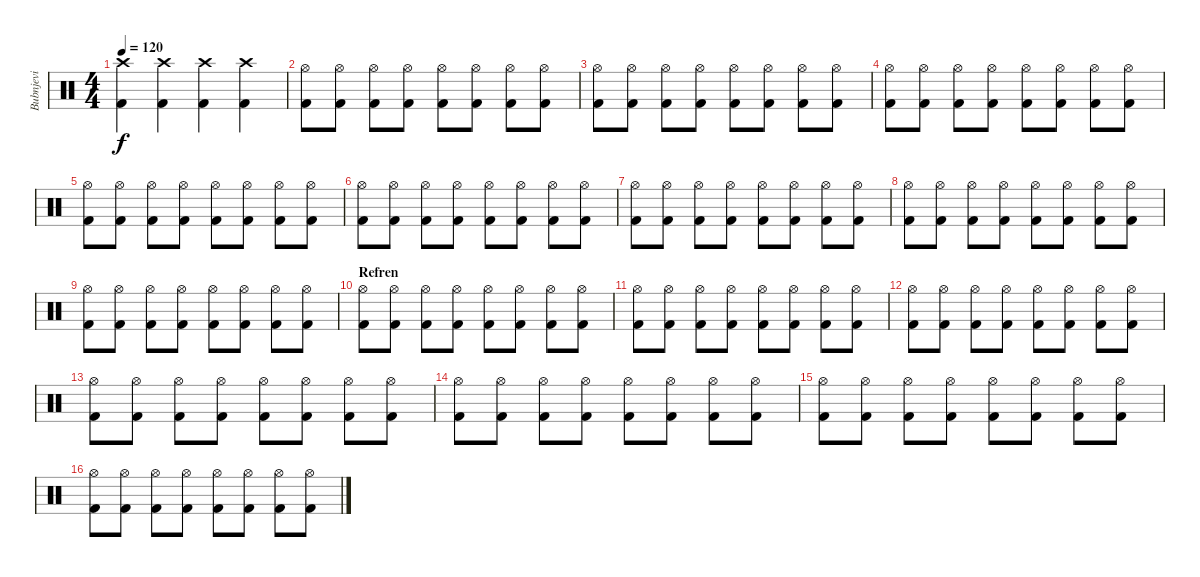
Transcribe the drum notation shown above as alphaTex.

\track ("Bubnjevi" "Bubnjevi") {instrument percussion}
\staff {score}
\articulation defaults
\ts (4 4)
\tempo 120
\clef neutral
\ks c
("Crash high (hit)" "Kick (hit) 2").4{dy f} ("Crash high (hit)" "Kick (hit) 2").4 ("Crash high (hit)" "Kick (hit) 2").4 ("Crash high (hit)" "Kick (hit) 2").4 |
("Hi-Hat (open)" "Kick (hit) 2").8 ("Hi-Hat (open)" "Kick (hit) 2").8 ("Hi-Hat (open)" "Kick (hit) 2").8 ("Hi-Hat (open)" "Kick (hit) 2").8 ("Hi-Hat (open)" "Kick (hit) 2").8 ("Hi-Hat (open)" "Kick (hit) 2").8 ("Hi-Hat (open)" "Kick (hit) 2").8 ("Hi-Hat (open)" "Kick (hit) 2").8 |
("Hi-Hat (open)" "Kick (hit) 2").8 ("Hi-Hat (open)" "Kick (hit) 2").8 ("Hi-Hat (open)" "Kick (hit) 2").8 ("Hi-Hat (open)" "Kick (hit) 2").8 ("Hi-Hat (open)" "Kick (hit) 2").8 ("Hi-Hat (open)" "Kick (hit) 2").8 ("Hi-Hat (open)" "Kick (hit) 2").8 ("Hi-Hat (open)" "Kick (hit) 2").8 |
("Hi-Hat (open)" "Kick (hit) 2").8 ("Hi-Hat (open)" "Kick (hit) 2").8 ("Hi-Hat (open)" "Kick (hit) 2").8 ("Hi-Hat (open)" "Kick (hit) 2").8 ("Hi-Hat (open)" "Kick (hit) 2").8 ("Hi-Hat (open)" "Kick (hit) 2").8 ("Hi-Hat (open)" "Kick (hit) 2").8 ("Hi-Hat (open)" "Kick (hit) 2").8 |
("Hi-Hat (open)" "Kick (hit) 2").8 ("Hi-Hat (open)" "Kick (hit) 2").8 ("Hi-Hat (open)" "Kick (hit) 2").8 ("Hi-Hat (open)" "Kick (hit) 2").8 ("Hi-Hat (open)" "Kick (hit) 2").8 ("Hi-Hat (open)" "Kick (hit) 2").8 ("Hi-Hat (open)" "Kick (hit) 2").8 ("Hi-Hat (open)" "Kick (hit) 2").8 |
("Hi-Hat (open)" "Kick (hit) 2").8 ("Hi-Hat (open)" "Kick (hit) 2").8 ("Hi-Hat (open)" "Kick (hit) 2").8 ("Hi-Hat (open)" "Kick (hit) 2").8 ("Hi-Hat (open)" "Kick (hit) 2").8 ("Hi-Hat (open)" "Kick (hit) 2").8 ("Hi-Hat (open)" "Kick (hit) 2").8 ("Hi-Hat (open)" "Kick (hit) 2").8 |
("Hi-Hat (open)" "Kick (hit) 2").8 ("Hi-Hat (open)" "Kick (hit) 2").8 ("Hi-Hat (open)" "Kick (hit) 2").8 ("Hi-Hat (open)" "Kick (hit) 2").8 ("Hi-Hat (open)" "Kick (hit) 2").8 ("Hi-Hat (open)" "Kick (hit) 2").8 ("Hi-Hat (open)" "Kick (hit) 2").8 ("Hi-Hat (open)" "Kick (hit) 2").8 |
("Hi-Hat (open)" "Kick (hit) 2").8 ("Hi-Hat (open)" "Kick (hit) 2").8 ("Hi-Hat (open)" "Kick (hit) 2").8 ("Hi-Hat (open)" "Kick (hit) 2").8 ("Hi-Hat (open)" "Kick (hit) 2").8 ("Hi-Hat (open)" "Kick (hit) 2").8 ("Hi-Hat (open)" "Kick (hit) 2").8 ("Hi-Hat (open)" "Kick (hit) 2").8 |
("Hi-Hat (open)" "Kick (hit) 2").8 ("Hi-Hat (open)" "Kick (hit) 2").8 ("Hi-Hat (open)" "Kick (hit) 2").8 ("Hi-Hat (open)" "Kick (hit) 2").8 ("Hi-Hat (open)" "Kick (hit) 2").8 ("Hi-Hat (open)" "Kick (hit) 2").8 ("Hi-Hat (open)" "Kick (hit) 2").8 ("Hi-Hat (open)" "Kick (hit) 2").8 |
\section ("" "Refren")
("Hi-Hat (open)" "Kick (hit) 2").8 ("Hi-Hat (open)" "Kick (hit) 2").8 ("Hi-Hat (open)" "Kick (hit) 2").8 ("Hi-Hat (open)" "Kick (hit) 2").8 ("Hi-Hat (open)" "Kick (hit) 2").8 ("Hi-Hat (open)" "Kick (hit) 2").8 ("Hi-Hat (open)" "Kick (hit) 2").8 ("Hi-Hat (open)" "Kick (hit) 2").8 |
("Hi-Hat (open)" "Kick (hit) 2").8 ("Hi-Hat (open)" "Kick (hit) 2").8 ("Hi-Hat (open)" "Kick (hit) 2").8 ("Hi-Hat (open)" "Kick (hit) 2").8 ("Hi-Hat (open)" "Kick (hit) 2").8 ("Hi-Hat (open)" "Kick (hit) 2").8 ("Hi-Hat (open)" "Kick (hit) 2").8 ("Hi-Hat (open)" "Kick (hit) 2").8 |
("Hi-Hat (open)" "Kick (hit) 2").8 ("Hi-Hat (open)" "Kick (hit) 2").8 ("Hi-Hat (open)" "Kick (hit) 2").8 ("Hi-Hat (open)" "Kick (hit) 2").8 ("Hi-Hat (open)" "Kick (hit) 2").8 ("Hi-Hat (open)" "Kick (hit) 2").8 ("Hi-Hat (open)" "Kick (hit) 2").8 ("Hi-Hat (open)" "Kick (hit) 2").8 |
("Hi-Hat (open)" "Kick (hit) 2").8 ("Hi-Hat (open)" "Kick (hit) 2").8 ("Hi-Hat (open)" "Kick (hit) 2").8 ("Hi-Hat (open)" "Kick (hit) 2").8 ("Hi-Hat (open)" "Kick (hit) 2").8 ("Hi-Hat (open)" "Kick (hit) 2").8 ("Hi-Hat (open)" "Kick (hit) 2").8 ("Hi-Hat (open)" "Kick (hit) 2").8 |
("Hi-Hat (open)" "Kick (hit) 2").8 ("Hi-Hat (open)" "Kick (hit) 2").8 ("Hi-Hat (open)" "Kick (hit) 2").8 ("Hi-Hat (open)" "Kick (hit) 2").8 ("Hi-Hat (open)" "Kick (hit) 2").8 ("Hi-Hat (open)" "Kick (hit) 2").8 ("Hi-Hat (open)" "Kick (hit) 2").8 ("Hi-Hat (open)" "Kick (hit) 2").8 |
("Hi-Hat (open)" "Kick (hit) 2").8 ("Hi-Hat (open)" "Kick (hit) 2").8 ("Hi-Hat (open)" "Kick (hit) 2").8 ("Hi-Hat (open)" "Kick (hit) 2").8 ("Hi-Hat (open)" "Kick (hit) 2").8 ("Hi-Hat (open)" "Kick (hit) 2").8 ("Hi-Hat (open)" "Kick (hit) 2").8 ("Hi-Hat (open)" "Kick (hit) 2").8 |
("Hi-Hat (open)" "Kick (hit) 2").8 ("Hi-Hat (open)" "Kick (hit) 2").8 ("Hi-Hat (open)" "Kick (hit) 2").8 ("Hi-Hat (open)" "Kick (hit) 2").8 ("Hi-Hat (open)" "Kick (hit) 2").8 ("Hi-Hat (open)" "Kick (hit) 2").8 ("Hi-Hat (open)" "Kick (hit) 2").8 ("Hi-Hat (open)" "Kick (hit) 2").8
